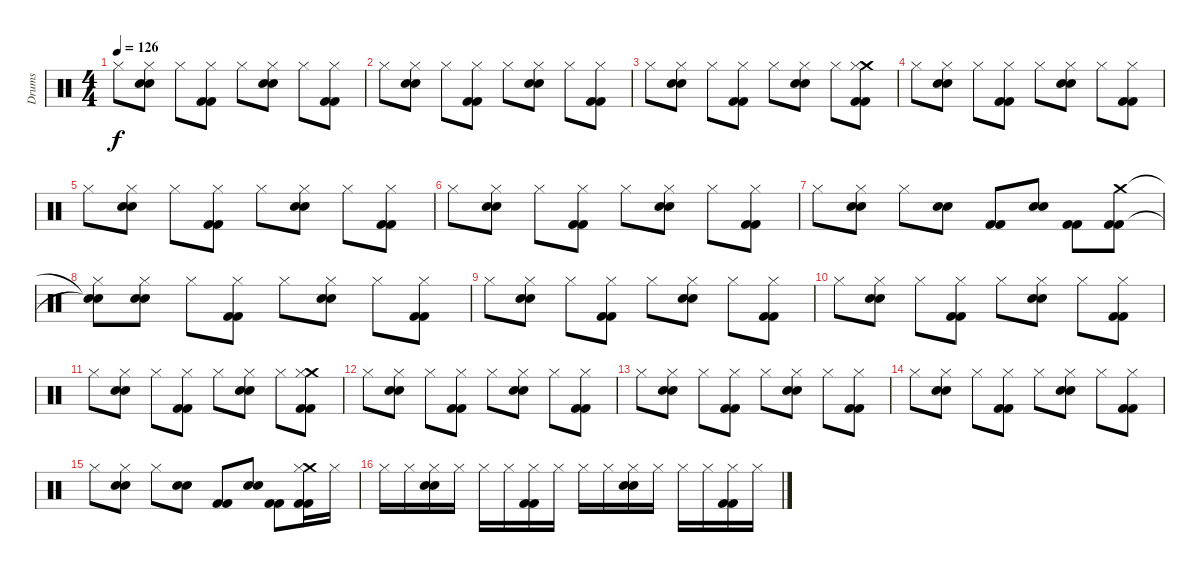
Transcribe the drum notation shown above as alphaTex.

\track ("Drums" "Drums") {instrument percussion}
\staff {score}
\articulation defaults
\ts (4 4)
\tempo 126
\clef neutral
\ks c "Hi-Hat (closed)".8{dy f}
("Electric Snare (hit)" "Hi-Hat (closed)" "Electric Snare (hit)").8 "Hi-Hat (closed)".8 ("Kick (hit) 2" "Hi-Hat (closed)" "Kick (hit) 2").8 "Hi-Hat (closed)".8 ("Electric Snare (hit)" "Hi-Hat (closed)" "Electric Snare (hit)").8 "Hi-Hat (closed)".8 ("Kick (hit) 2" "Hi-Hat (closed)" "Kick (hit) 2").8 |
"Hi-Hat (closed)".8 ("Electric Snare (hit)" "Hi-Hat (closed)" "Electric Snare (hit)").8 "Hi-Hat (closed)".8 ("Kick (hit) 2" "Hi-Hat (closed)" "Kick (hit) 2").8 "Hi-Hat (closed)".8 ("Electric Snare (hit)" "Hi-Hat (closed)" "Electric Snare (hit)").8 "Hi-Hat (closed)".8 ("Kick (hit) 2" "Hi-Hat (closed)" "Kick (hit) 2").8 |
"Hi-Hat (closed)".8 ("Electric Snare (hit)" "Hi-Hat (closed)" "Electric Snare (hit)").8 "Hi-Hat (closed)".8 ("Kick (hit) 2" "Hi-Hat (closed)" "Kick (hit) 2").8 "Hi-Hat (closed)".8 ("Electric Snare (hit)" "Hi-Hat (closed)" "Electric Snare (hit)").8 "Hi-Hat (closed)".8 ("Crash medium (hit)" "Kick (hit) 2" "Hi-Hat (closed)" "Kick (hit) 2").8 |
"Hi-Hat (closed)".8 ("Electric Snare (hit)" "Hi-Hat (closed)" "Electric Snare (hit)").8 "Hi-Hat (closed)".8 ("Kick (hit) 2" "Hi-Hat (closed)" "Kick (hit) 2").8 "Hi-Hat (closed)".8 ("Electric Snare (hit)" "Hi-Hat (closed)" "Electric Snare (hit)").8 "Hi-Hat (closed)".8 ("Kick (hit) 2" "Hi-Hat (closed)" "Kick (hit) 2").8 |
"Hi-Hat (closed)".8 ("Electric Snare (hit)" "Hi-Hat (closed)" "Electric Snare (hit)").8 "Hi-Hat (closed)".8 ("Kick (hit) 2" "Hi-Hat (closed)" "Kick (hit) 2").8 "Hi-Hat (closed)".8 ("Electric Snare (hit)" "Hi-Hat (closed)" "Electric Snare (hit)").8 "Hi-Hat (closed)".8 ("Kick (hit) 2" "Hi-Hat (closed)" "Kick (hit) 2").8 |
"Hi-Hat (closed)".8 ("Electric Snare (hit)" "Hi-Hat (closed)" "Electric Snare (hit)").8 "Hi-Hat (closed)".8 ("Kick (hit) 2" "Hi-Hat (closed)" "Kick (hit) 2").8 "Hi-Hat (closed)".8 ("Electric Snare (hit)" "Hi-Hat (closed)" "Electric Snare (hit)").8 "Hi-Hat (closed)".8 ("Kick (hit) 2" "Hi-Hat (closed)" "Kick (hit) 2").8 |
"Hi-Hat (closed)".8 ("Electric Snare (hit)" "Hi-Hat (closed)" "Electric Snare (hit)").8 "Hi-Hat (closed)".8 ("Electric Snare (hit)" "Electric Snare (hit)").8 ("Kick (hit) 2" "Kick (hit) 2").8 ("Electric Snare (hit)" "Electric Snare (hit)").8 ("Kick (hit) 2" "Kick (hit) 2").8 ("Crash medium (hit)" "Kick (hit) 2" "Kick (hit) 2").8 |
("Snare (hit)"{t} "Hi-Hat (closed)" "Snare (hit)"{t}).8 ("Electric Snare (hit)" "Hi-Hat (closed)" "Electric Snare (hit)").8 "Hi-Hat (closed)".8 ("Kick (hit) 2" "Hi-Hat (closed)" "Kick (hit) 2").8 "Hi-Hat (closed)".8 ("Electric Snare (hit)" "Hi-Hat (closed)" "Electric Snare (hit)").8 "Hi-Hat (closed)".8 ("Kick (hit) 2" "Hi-Hat (closed)" "Kick (hit) 2").8 |
"Hi-Hat (closed)".8 ("Electric Snare (hit)" "Hi-Hat (closed)" "Electric Snare (hit)").8 "Hi-Hat (closed)".8 ("Kick (hit) 2" "Hi-Hat (closed)" "Kick (hit) 2").8 "Hi-Hat (closed)".8 ("Electric Snare (hit)" "Hi-Hat (closed)" "Electric Snare (hit)").8 "Hi-Hat (closed)".8 ("Kick (hit) 2" "Hi-Hat (closed)" "Kick (hit) 2").8 |
"Hi-Hat (closed)".8 ("Electric Snare (hit)" "Hi-Hat (closed)" "Electric Snare (hit)").8 "Hi-Hat (closed)".8 ("Kick (hit) 2" "Hi-Hat (closed)" "Kick (hit) 2").8 "Hi-Hat (closed)".8 ("Electric Snare (hit)" "Hi-Hat (closed)" "Electric Snare (hit)").8 "Hi-Hat (closed)".8 ("Kick (hit) 2" "Hi-Hat (closed)" "Kick (hit) 2").8 |
"Hi-Hat (closed)".8 ("Electric Snare (hit)" "Hi-Hat (closed)" "Electric Snare (hit)").8 "Hi-Hat (closed)".8 ("Kick (hit) 2" "Hi-Hat (closed)" "Kick (hit) 2").8 "Hi-Hat (closed)".8 ("Electric Snare (hit)" "Hi-Hat (closed)" "Electric Snare (hit)").8 "Hi-Hat (closed)".8 ("Crash medium (hit)" "Kick (hit) 2" "Hi-Hat (closed)" "Kick (hit) 2").8 |
"Hi-Hat (closed)".8 ("Electric Snare (hit)" "Hi-Hat (closed)" "Electric Snare (hit)").8 "Hi-Hat (closed)".8 ("Kick (hit) 2" "Hi-Hat (closed)" "Kick (hit) 2").8 "Hi-Hat (closed)".8 ("Electric Snare (hit)" "Hi-Hat (closed)" "Electric Snare (hit)").8 "Hi-Hat (closed)".8 ("Kick (hit) 2" "Hi-Hat (closed)" "Kick (hit) 2").8 |
"Hi-Hat (closed)".8 ("Electric Snare (hit)" "Hi-Hat (closed)" "Electric Snare (hit)").8 "Hi-Hat (closed)".8 ("Kick (hit) 2" "Hi-Hat (closed)" "Kick (hit) 2").8 "Hi-Hat (closed)".8 ("Electric Snare (hit)" "Hi-Hat (closed)" "Electric Snare (hit)").8 "Hi-Hat (closed)".8 ("Kick (hit) 2" "Hi-Hat (closed)" "Kick (hit) 2").8 |
"Hi-Hat (closed)".8 ("Electric Snare (hit)" "Hi-Hat (closed)" "Electric Snare (hit)").8 "Hi-Hat (closed)".8 ("Kick (hit) 2" "Hi-Hat (closed)" "Kick (hit) 2").8 "Hi-Hat (closed)".8 ("Electric Snare (hit)" "Hi-Hat (closed)" "Electric Snare (hit)").8 "Hi-Hat (closed)".8 ("Kick (hit) 2" "Hi-Hat (closed)" "Kick (hit) 2").8 |
"Hi-Hat (closed)".8 ("Electric Snare (hit)" "Hi-Hat (closed)" "Electric Snare (hit)").8 "Hi-Hat (closed)".8 ("Electric Snare (hit)" "Electric Snare (hit)").8 ("Kick (hit) 2" "Kick (hit) 2").8 ("Electric Snare (hit)" "Electric Snare (hit)").8 ("Kick (hit) 2" "Kick (hit) 2").8 ("Crash medium (hit)" "Kick (hit) 2" "Hi-Hat (closed)" "Kick (hit) 2").16 "Hi-Hat (closed)".16 |
"Hi-Hat (closed)".16 "Hi-Hat (closed)".16 ("Electric Snare (hit)" "Hi-Hat (closed)" "Electric Snare (hit)").16 "Hi-Hat (closed)".16 "Hi-Hat (closed)".16 "Hi-Hat (closed)".16 ("Kick (hit) 2" "Hi-Hat (closed)" "Kick (hit) 2").16 "Hi-Hat (closed)".16 "Hi-Hat (closed)".16 "Hi-Hat (closed)".16 ("Electric Snare (hit)" "Hi-Hat (closed)" "Electric Snare (hit)").16 "Hi-Hat (closed)".16 "Hi-Hat (closed)".16 "Hi-Hat (closed)".16 ("Kick (hit) 2" "Hi-Hat (closed)" "Kick (hit) 2").16 "Hi-Hat (closed)".16
